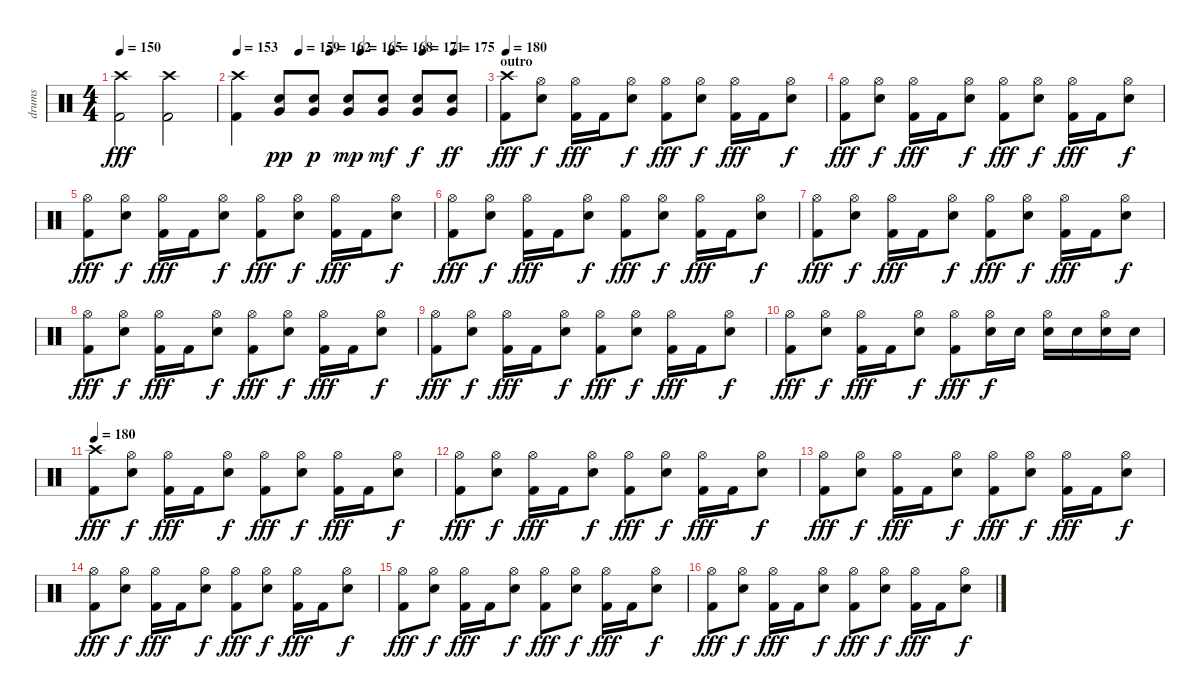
\track ("drums" "drums") {instrument percussion}
\staff {score}
\articulation defaults
\ts (4 4)
\tempo 150
\clef neutral
\ks c
("Crash high (hit)" "Kick (hit) 2").2{dy fff} ("Crash high (hit)" "Kick (hit) 2").2 |
\tempo 153
\tempo (159 0.25)
\tempo (162 0.375)
\tempo (165 0.5)
\tempo (168 0.625)
\tempo (171 0.75)
\tempo (175 0.875)
("Crash high (hit)" "Kick (hit) 2").4 ("Very Low Tom (hit)" "Snare (hit) 2").8{dy pp} ("Very Low Tom (hit)" "Snare (hit) 2").8{dy p} ("Very Low Tom (hit)" "Snare (hit) 2").8{dy mp} ("Very Low Tom (hit)" "Snare (hit) 2").8{dy mf} ("Very Low Tom (hit)" "Snare (hit) 2").8{dy f} ("Very Low Tom (hit)" "Snare (hit) 2").8{dy ff} |
\section ("" "outro")
\tempo 180
("Crash high (hit)" "Kick (hit) 2").8{dy fff} ("Hi-Hat (open)" "Snare (hit) 2").8{dy f} ("Hi-Hat (open)" "Kick (hit) 2").16{dy fff} "Kick (hit) 2".16 ("Hi-Hat (open)" "Snare (hit) 2").8{dy f} ("Hi-Hat (open)" "Kick (hit) 2").8{dy fff} ("Hi-Hat (open)" "Snare (hit) 2").8{dy f} ("Hi-Hat (open)" "Kick (hit) 2").16{dy fff} "Kick (hit) 2".16 ("Hi-Hat (open)" "Snare (hit) 2").8{dy f} |
("Hi-Hat (open)" "Kick (hit) 2").8{dy fff} ("Hi-Hat (open)" "Snare (hit) 2").8{dy f} ("Hi-Hat (open)" "Kick (hit) 2").16{dy fff} "Kick (hit) 2".16 ("Hi-Hat (open)" "Snare (hit) 2").8{dy f} ("Hi-Hat (open)" "Kick (hit) 2").8{dy fff} ("Hi-Hat (open)" "Snare (hit) 2").8{dy f} ("Hi-Hat (open)" "Kick (hit) 2").16{dy fff} "Kick (hit) 2".16 ("Hi-Hat (open)" "Snare (hit) 2").8{dy f} |
("Hi-Hat (open)" "Kick (hit) 2").8{dy fff} ("Hi-Hat (open)" "Snare (hit) 2").8{dy f} ("Hi-Hat (open)" "Kick (hit) 2").16{dy fff} "Kick (hit) 2".16 ("Hi-Hat (open)" "Snare (hit) 2").8{dy f} ("Hi-Hat (open)" "Kick (hit) 2").8{dy fff} ("Hi-Hat (open)" "Snare (hit) 2").8{dy f} ("Hi-Hat (open)" "Kick (hit) 2").16{dy fff} "Kick (hit) 2".16 ("Hi-Hat (open)" "Snare (hit) 2").8{dy f} |
("Hi-Hat (open)" "Kick (hit) 2").8{dy fff} ("Hi-Hat (open)" "Snare (hit) 2").8{dy f} ("Hi-Hat (open)" "Kick (hit) 2").16{dy fff} "Kick (hit) 2".16 ("Hi-Hat (open)" "Snare (hit) 2").8{dy f} ("Hi-Hat (open)" "Kick (hit) 2").8{dy fff} ("Hi-Hat (open)" "Snare (hit) 2").8{dy f} ("Hi-Hat (open)" "Kick (hit) 2").16{dy fff} "Kick (hit) 2".16 ("Hi-Hat (open)" "Snare (hit) 2").8{dy f} |
("Hi-Hat (open)" "Kick (hit) 2").8{dy fff} ("Hi-Hat (open)" "Snare (hit) 2").8{dy f} ("Hi-Hat (open)" "Kick (hit) 2").16{dy fff} "Kick (hit) 2".16 ("Hi-Hat (open)" "Snare (hit) 2").8{dy f} ("Hi-Hat (open)" "Kick (hit) 2").8{dy fff} ("Hi-Hat (open)" "Snare (hit) 2").8{dy f} ("Hi-Hat (open)" "Kick (hit) 2").16{dy fff} "Kick (hit) 2".16 ("Hi-Hat (open)" "Snare (hit) 2").8{dy f} |
("Hi-Hat (open)" "Kick (hit) 2").8{dy fff} ("Hi-Hat (open)" "Snare (hit) 2").8{dy f} ("Hi-Hat (open)" "Kick (hit) 2").16{dy fff} "Kick (hit) 2".16 ("Hi-Hat (open)" "Snare (hit) 2").8{dy f} ("Hi-Hat (open)" "Kick (hit) 2").8{dy fff} ("Hi-Hat (open)" "Snare (hit) 2").8{dy f} ("Hi-Hat (open)" "Kick (hit) 2").16{dy fff} "Kick (hit) 2".16 ("Hi-Hat (open)" "Snare (hit) 2").8{dy f} |
("Hi-Hat (open)" "Kick (hit) 2").8{dy fff} ("Hi-Hat (open)" "Snare (hit) 2").8{dy f} ("Hi-Hat (open)" "Kick (hit) 2").16{dy fff} "Kick (hit) 2".16 ("Hi-Hat (open)" "Snare (hit) 2").8{dy f} ("Hi-Hat (open)" "Kick (hit) 2").8{dy fff} ("Hi-Hat (open)" "Snare (hit) 2").8{dy f} ("Hi-Hat (open)" "Kick (hit) 2").16{dy fff} "Kick (hit) 2".16 ("Hi-Hat (open)" "Snare (hit) 2").8{dy f} |
("Hi-Hat (open)" "Kick (hit) 2").8{dy fff} ("Hi-Hat (open)" "Snare (hit) 2").8{dy f} ("Hi-Hat (open)" "Kick (hit) 2").16{dy fff} "Kick (hit) 2".16 ("Hi-Hat (open)" "Snare (hit) 2").8{dy f} ("Hi-Hat (open)" "Kick (hit) 2").8{dy fff} ("Hi-Hat (open)" "Snare (hit) 2").16{dy f} "Snare (hit) 2".16 ("Hi-Hat (open)" "Snare (hit) 2").16 "Snare (hit) 2".16 ("Hi-Hat (open)" "Snare (hit) 2").16 "Snare (hit) 2".16 |
\tempo 180
("Crash high (hit)" "Kick (hit) 2").8{dy fff} ("Hi-Hat (open)" "Snare (hit) 2").8{dy f} ("Hi-Hat (open)" "Kick (hit) 2").16{dy fff} "Kick (hit) 2".16 ("Hi-Hat (open)" "Snare (hit) 2").8{dy f} ("Hi-Hat (open)" "Kick (hit) 2").8{dy fff} ("Hi-Hat (open)" "Snare (hit) 2").8{dy f} ("Hi-Hat (open)" "Kick (hit) 2").16{dy fff} "Kick (hit) 2".16 ("Hi-Hat (open)" "Snare (hit) 2").8{dy f} |
("Hi-Hat (open)" "Kick (hit) 2").8{dy fff} ("Hi-Hat (open)" "Snare (hit) 2").8{dy f} ("Hi-Hat (open)" "Kick (hit) 2").16{dy fff} "Kick (hit) 2".16 ("Hi-Hat (open)" "Snare (hit) 2").8{dy f} ("Hi-Hat (open)" "Kick (hit) 2").8{dy fff} ("Hi-Hat (open)" "Snare (hit) 2").8{dy f} ("Hi-Hat (open)" "Kick (hit) 2").16{dy fff} "Kick (hit) 2".16 ("Hi-Hat (open)" "Snare (hit) 2").8{dy f} |
("Hi-Hat (open)" "Kick (hit) 2").8{dy fff} ("Hi-Hat (open)" "Snare (hit) 2").8{dy f} ("Hi-Hat (open)" "Kick (hit) 2").16{dy fff} "Kick (hit) 2".16 ("Hi-Hat (open)" "Snare (hit) 2").8{dy f} ("Hi-Hat (open)" "Kick (hit) 2").8{dy fff} ("Hi-Hat (open)" "Snare (hit) 2").8{dy f} ("Hi-Hat (open)" "Kick (hit) 2").16{dy fff} "Kick (hit) 2".16 ("Hi-Hat (open)" "Snare (hit) 2").8{dy f} |
("Hi-Hat (open)" "Kick (hit) 2").8{dy fff} ("Hi-Hat (open)" "Snare (hit) 2").8{dy f} ("Hi-Hat (open)" "Kick (hit) 2").16{dy fff} "Kick (hit) 2".16 ("Hi-Hat (open)" "Snare (hit) 2").8{dy f} ("Hi-Hat (open)" "Kick (hit) 2").8{dy fff} ("Hi-Hat (open)" "Snare (hit) 2").8{dy f} ("Hi-Hat (open)" "Kick (hit) 2").16{dy fff} "Kick (hit) 2".16 ("Hi-Hat (open)" "Snare (hit) 2").8{dy f} |
("Hi-Hat (open)" "Kick (hit) 2").8{dy fff} ("Hi-Hat (open)" "Snare (hit) 2").8{dy f} ("Hi-Hat (open)" "Kick (hit) 2").16{dy fff} "Kick (hit) 2".16 ("Hi-Hat (open)" "Snare (hit) 2").8{dy f} ("Hi-Hat (open)" "Kick (hit) 2").8{dy fff} ("Hi-Hat (open)" "Snare (hit) 2").8{dy f} ("Hi-Hat (open)" "Kick (hit) 2").16{dy fff} "Kick (hit) 2".16 ("Hi-Hat (open)" "Snare (hit) 2").8{dy f} |
("Hi-Hat (open)" "Kick (hit) 2").8{dy fff} ("Hi-Hat (open)" "Snare (hit) 2").8{dy f} ("Hi-Hat (open)" "Kick (hit) 2").16{dy fff} "Kick (hit) 2".16 ("Hi-Hat (open)" "Snare (hit) 2").8{dy f} ("Hi-Hat (open)" "Kick (hit) 2").8{dy fff} ("Hi-Hat (open)" "Snare (hit) 2").8{dy f} ("Hi-Hat (open)" "Kick (hit) 2").16{dy fff} "Kick (hit) 2".16 ("Hi-Hat (open)" "Snare (hit) 2").8{dy f}
